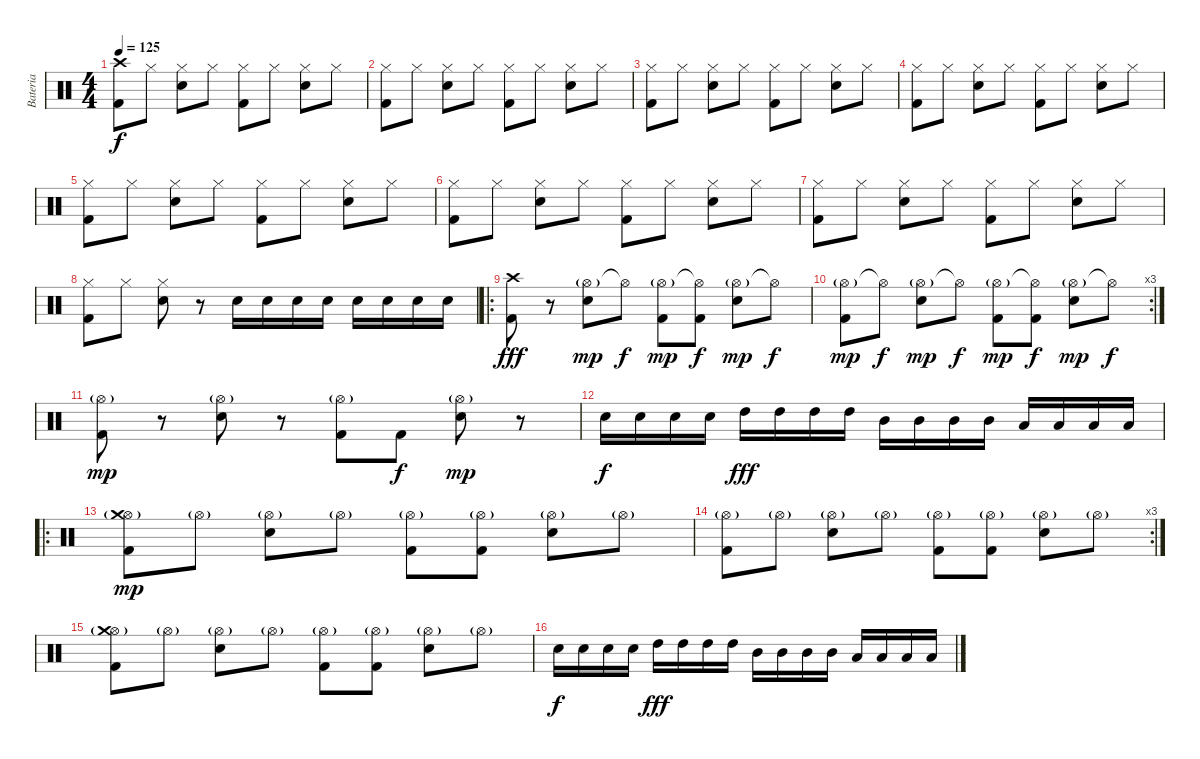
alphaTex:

\track ("Bateria" "Bateria") {instrument percussion}
\staff {score}
\articulation defaults
\ts (4 4)
\tempo 125
\clef neutral
\ks c
("Kick (hit) 2" "Crash high (hit)").8{dy f} "Hi-Hat (closed)".8 ("Snare (hit) 2" "Hi-Hat (closed)").8 "Hi-Hat (closed)".8 ("Kick (hit) 2" "Hi-Hat (closed)").8 "Hi-Hat (closed)".8 ("Snare (hit) 2" "Hi-Hat (closed)").8 "Hi-Hat (closed)".8 |
("Kick (hit) 2" "Hi-Hat (closed)").8 "Hi-Hat (closed)".8 ("Snare (hit) 2" "Hi-Hat (closed)").8 "Hi-Hat (closed)".8 ("Kick (hit) 2" "Hi-Hat (closed)").8 "Hi-Hat (closed)".8 ("Snare (hit) 2" "Hi-Hat (closed)").8 "Hi-Hat (closed)".8 |
("Kick (hit) 2" "Hi-Hat (closed)").8 "Hi-Hat (closed)".8 ("Snare (hit) 2" "Hi-Hat (closed)").8 "Hi-Hat (closed)".8 ("Kick (hit) 2" "Hi-Hat (closed)").8 "Hi-Hat (closed)".8 ("Snare (hit) 2" "Hi-Hat (closed)").8 "Hi-Hat (closed)".8 |
("Kick (hit) 2" "Hi-Hat (closed)").8 "Hi-Hat (closed)".8 ("Snare (hit) 2" "Hi-Hat (closed)").8 "Hi-Hat (closed)".8 ("Kick (hit) 2" "Hi-Hat (closed)").8 "Hi-Hat (closed)".8 ("Snare (hit) 2" "Hi-Hat (closed)").8 "Hi-Hat (closed)".8 |
("Kick (hit) 2" "Hi-Hat (closed)").8 "Hi-Hat (closed)".8 ("Snare (hit) 2" "Hi-Hat (closed)").8 "Hi-Hat (closed)".8 ("Kick (hit) 2" "Hi-Hat (closed)").8 "Hi-Hat (closed)".8 ("Snare (hit) 2" "Hi-Hat (closed)").8 "Hi-Hat (closed)".8 |
("Kick (hit) 2" "Hi-Hat (closed)").8 "Hi-Hat (closed)".8 ("Snare (hit) 2" "Hi-Hat (closed)").8 "Hi-Hat (closed)".8 ("Kick (hit) 2" "Hi-Hat (closed)").8 "Hi-Hat (closed)".8 ("Snare (hit) 2" "Hi-Hat (closed)").8 "Hi-Hat (closed)".8 |
("Kick (hit) 2" "Hi-Hat (closed)").8 "Hi-Hat (closed)".8 ("Snare (hit) 2" "Hi-Hat (closed)").8 "Hi-Hat (closed)".8 ("Kick (hit) 2" "Hi-Hat (closed)").8 "Hi-Hat (closed)".8 ("Snare (hit) 2" "Hi-Hat (closed)").8 "Hi-Hat (closed)".8 |
("Hi-Hat (closed)" "Kick (hit) 2").8 "Hi-Hat (closed)".8 ("Snare (hit) 2" "Hi-Hat (closed)").8 r.8 "Snare (hit) 2".16 "Snare (hit) 2".16 "Snare (hit) 2".16 "Snare (hit) 2".16 "Snare (hit) 2".16 "Snare (hit) 2".16 "Snare (hit) 2".16 "Snare (hit) 2".16 |
\ro
("Crash high (hit)" "Kick (hit) 2").8{dy fff} r.8 ("Hi-Hat (open)"{g} "Snare (hit) 2").8{dy mp} "Hi-Hat (open)"{t}.8{dy f} ("Hi-Hat (open)"{g} "Kick (hit) 2").8{dy mp} ("Hi-Hat (open)"{t} "Kick (hit) 2").8{dy f} ("Hi-Hat (open)"{g} "Snare (hit) 2").8{dy mp} "Hi-Hat (open)"{t}.8{dy f} |
\rc 3
("Hi-Hat (open)"{g} "Kick (hit) 2").8{dy mp} "Hi-Hat (open)"{t}.8{dy f} ("Hi-Hat (open)"{g} "Snare (hit) 2").8{dy mp} "Hi-Hat (open)"{t}.8{dy f} ("Hi-Hat (open)"{g} "Kick (hit) 2").8{dy mp} ("Hi-Hat (open)"{t} "Kick (hit) 2").8{dy f} ("Hi-Hat (open)"{g} "Snare (hit) 2").8{dy mp} "Hi-Hat (open)"{t}.8{dy f} |
("Hi-Hat (open)"{g} "Kick (hit) 2").8{dy mp} r.8 ("Hi-Hat (open)"{g} "Snare (hit) 2").8 r.8 ("Hi-Hat (open)"{g} "Kick (hit) 2").8 "Kick (hit) 2".8{dy f} ("Hi-Hat (open)"{g} "Snare (hit) 2").8{dy mp} r.8 |
"Snare (hit) 2".16{dy f} "Snare (hit) 2".16 "Snare (hit) 2".16 "Snare (hit) 2".16 "High Tom (hit)".16{dy fff} "High Tom (hit)".16 "High Tom (hit)".16 "High Tom (hit)".16 "Mid Tom (hit)".16 "Mid Tom (hit)".16 "Mid Tom (hit)".16 "Mid Tom (hit)".16 "Low Tom (hit)".16 "Low Tom (hit)".16 "Low Tom (hit)".16 "Low Tom (hit)".16 |
\ro
("Hi-Hat (open)"{g} "Kick (hit) 2" "Crash medium (hit)").8{dy mp} "Hi-Hat (open)"{g}.8 ("Hi-Hat (open)"{g} "Snare (hit) 2").8 "Hi-Hat (open)"{g}.8 ("Hi-Hat (open)"{g} "Kick (hit) 2").8 ("Hi-Hat (open)"{g} "Kick (hit) 2").8 ("Hi-Hat (open)"{g} "Snare (hit) 2").8 "Hi-Hat (open)"{g}.8 |
\rc 3
("Hi-Hat (open)"{g} "Kick (hit) 2").8 "Hi-Hat (open)"{g}.8 ("Hi-Hat (open)"{g} "Snare (hit) 2").8 "Hi-Hat (open)"{g}.8 ("Hi-Hat (open)"{g} "Kick (hit) 2").8 ("Hi-Hat (open)"{g} "Kick (hit) 2").8 ("Hi-Hat (open)"{g} "Snare (hit) 2").8 "Hi-Hat (open)"{g}.8 |
("Hi-Hat (open)"{g} "Kick (hit) 2" "Crash medium (hit)").8 "Hi-Hat (open)"{g}.8 ("Hi-Hat (open)"{g} "Snare (hit) 2").8 "Hi-Hat (open)"{g}.8 ("Hi-Hat (open)"{g} "Kick (hit) 2").8 ("Hi-Hat (open)"{g} "Kick (hit) 2").8 ("Hi-Hat (open)"{g} "Snare (hit) 2").8 "Hi-Hat (open)"{g}.8 |
"Snare (hit) 2".16{dy f} "Snare (hit) 2".16 "Snare (hit) 2".16 "Snare (hit) 2".16 "High Tom (hit)".16{dy fff} "High Tom (hit)".16 "High Tom (hit)".16 "High Tom (hit)".16 "Mid Tom (hit)".16 "Mid Tom (hit)".16 "Mid Tom (hit)".16 "Mid Tom (hit)".16 "Low Tom (hit)".16 "Low Tom (hit)".16 "Low Tom (hit)".16 "Low Tom (hit)".16
